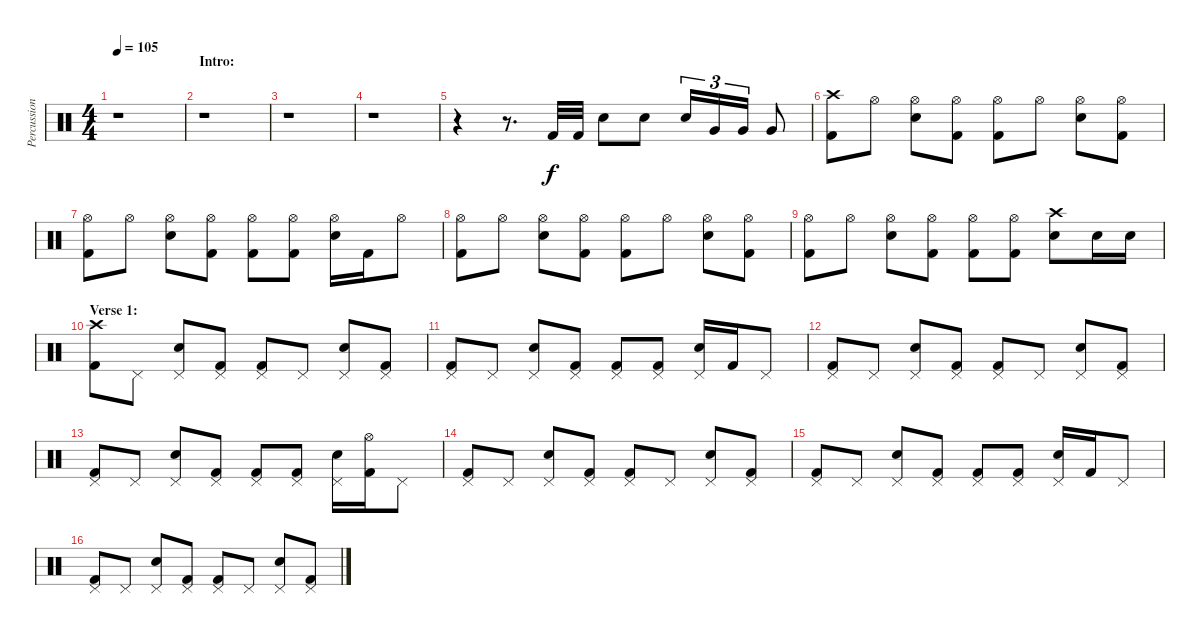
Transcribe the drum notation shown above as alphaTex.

\track ("Percussion" "Percussion") {instrument percussion}
\staff {score}
\articulation defaults
\ts (4 4)
\tempo 105
\clef neutral
\ks c
r.1{dy f} |
\section ("" "Intro:")
r.1 |
r.1 |
r.1 |
r.4 r.8{d} "Kick (hit) 2".32 "Kick (hit) 2".32 "Electric Snare (hit)".8 "Electric Snare (hit)".8 "Electric Snare (hit)".16{tu (3 2)} "Very Low Tom (hit)".16{tu (3 2)} "Very Low Tom (hit)".16{tu (3 2)} "Very Low Tom (hit)".8 |
("Crash high (hit)" "Kick (hit) 2").8 "Hi-Hat (open)".8 ("Hi-Hat (open)" "Electric Snare (hit)").8 ("Hi-Hat (open)" "Kick (hit) 2").8 ("Hi-Hat (open)" "Kick (hit) 2").8 "Hi-Hat (open)".8 ("Hi-Hat (open)" "Electric Snare (hit)").8 ("Hi-Hat (open)" "Kick (hit) 2").8 |
("Hi-Hat (open)" "Kick (hit) 2").8 "Hi-Hat (open)".8 ("Hi-Hat (open)" "Electric Snare (hit)").8 ("Hi-Hat (open)" "Kick (hit) 2").8 ("Hi-Hat (open)" "Kick (hit) 2").8 ("Hi-Hat (open)" "Kick (hit) 2").8 ("Hi-Hat (open)" "Electric Snare (hit)").16 "Kick (hit) 2".16 "Hi-Hat (open)".8 |
("Hi-Hat (open)" "Kick (hit) 2").8 "Hi-Hat (open)".8 ("Hi-Hat (open)" "Electric Snare (hit)").8 ("Hi-Hat (open)" "Kick (hit) 2").8 ("Hi-Hat (open)" "Kick (hit) 2").8 "Hi-Hat (open)".8 ("Hi-Hat (open)" "Electric Snare (hit)").8 ("Hi-Hat (open)" "Kick (hit) 2").8 |
("Hi-Hat (open)" "Kick (hit) 2").8 "Hi-Hat (open)".8 ("Hi-Hat (open)" "Electric Snare (hit)").8 ("Hi-Hat (open)" "Kick (hit) 2").8 ("Hi-Hat (open)" "Kick (hit) 2").8 ("Hi-Hat (open)" "Kick (hit) 2").8 ("Crash high (hit)" "Electric Snare (hit)").8 "Electric Snare (hit)".16 "Electric Snare (hit)".16 |
\section ("" "Verse 1:")
("Crash high (hit)" "Kick (hit) 2").8 "Pedal Hi-Hat (hit)".8 ("Pedal Hi-Hat (hit)" "Electric Snare (hit)").8 ("Pedal Hi-Hat (hit)" "Kick (hit) 2").8 ("Pedal Hi-Hat (hit)" "Kick (hit) 2").8 "Pedal Hi-Hat (hit)".8 ("Pedal Hi-Hat (hit)" "Electric Snare (hit)").8 ("Pedal Hi-Hat (hit)" "Kick (hit) 2").8 |
("Pedal Hi-Hat (hit)" "Kick (hit) 2").8 "Pedal Hi-Hat (hit)".8 ("Pedal Hi-Hat (hit)" "Electric Snare (hit)").8 ("Pedal Hi-Hat (hit)" "Kick (hit) 2").8 ("Pedal Hi-Hat (hit)" "Kick (hit) 2").8 ("Pedal Hi-Hat (hit)" "Kick (hit) 2").8 ("Pedal Hi-Hat (hit)" "Electric Snare (hit)").16 "Kick (hit) 2".16 "Pedal Hi-Hat (hit)".8 |
("Pedal Hi-Hat (hit)" "Kick (hit) 2").8 "Pedal Hi-Hat (hit)".8 ("Pedal Hi-Hat (hit)" "Electric Snare (hit)").8 ("Pedal Hi-Hat (hit)" "Kick (hit) 2").8 ("Pedal Hi-Hat (hit)" "Kick (hit) 2").8 "Pedal Hi-Hat (hit)".8 ("Pedal Hi-Hat (hit)" "Electric Snare (hit)").8 ("Pedal Hi-Hat (hit)" "Kick (hit) 2").8 |
("Pedal Hi-Hat (hit)" "Kick (hit) 2").8 "Pedal Hi-Hat (hit)".8 ("Pedal Hi-Hat (hit)" "Electric Snare (hit)").8 ("Pedal Hi-Hat (hit)" "Kick (hit) 2").8 ("Pedal Hi-Hat (hit)" "Kick (hit) 2").8 ("Pedal Hi-Hat (hit)" "Kick (hit) 2").8 ("Pedal Hi-Hat (hit)" "Electric Snare (hit)").16 ("Hi-Hat (open)" "Kick (hit) 2").16 "Pedal Hi-Hat (hit)".8 |
("Pedal Hi-Hat (hit)" "Kick (hit) 2").8 "Pedal Hi-Hat (hit)".8 ("Pedal Hi-Hat (hit)" "Electric Snare (hit)").8 ("Pedal Hi-Hat (hit)" "Kick (hit) 2").8 ("Pedal Hi-Hat (hit)" "Kick (hit) 2").8 "Pedal Hi-Hat (hit)".8 ("Pedal Hi-Hat (hit)" "Electric Snare (hit)").8 ("Pedal Hi-Hat (hit)" "Kick (hit) 2").8 |
("Pedal Hi-Hat (hit)" "Kick (hit) 2").8 "Pedal Hi-Hat (hit)".8 ("Pedal Hi-Hat (hit)" "Electric Snare (hit)").8 ("Pedal Hi-Hat (hit)" "Kick (hit) 2").8 ("Pedal Hi-Hat (hit)" "Kick (hit) 2").8 ("Pedal Hi-Hat (hit)" "Kick (hit) 2").8 ("Pedal Hi-Hat (hit)" "Electric Snare (hit)").16 "Kick (hit) 2".16 "Pedal Hi-Hat (hit)".8 |
("Pedal Hi-Hat (hit)" "Kick (hit) 2").8 "Pedal Hi-Hat (hit)".8 ("Pedal Hi-Hat (hit)" "Electric Snare (hit)").8 ("Pedal Hi-Hat (hit)" "Kick (hit) 2").8 ("Pedal Hi-Hat (hit)" "Kick (hit) 2").8 "Pedal Hi-Hat (hit)".8 ("Pedal Hi-Hat (hit)" "Electric Snare (hit)").8 ("Pedal Hi-Hat (hit)" "Kick (hit) 2").8
